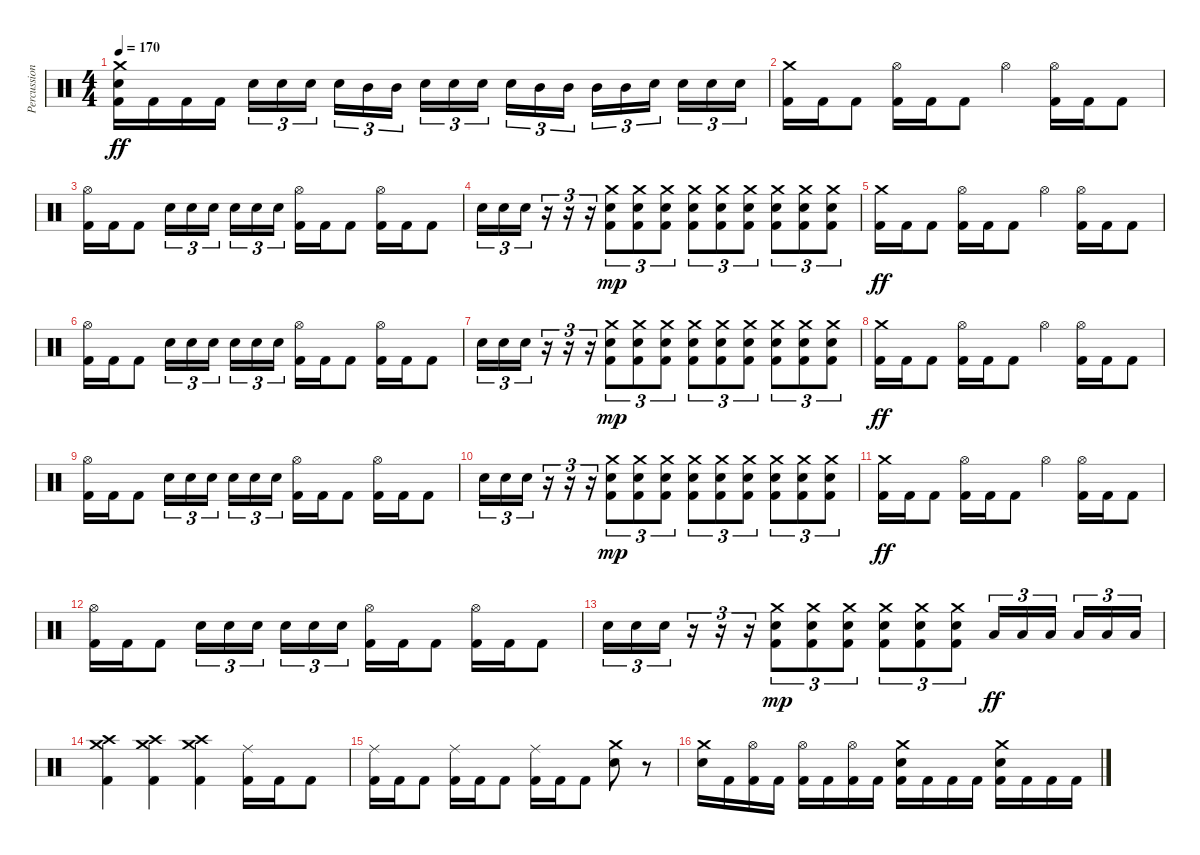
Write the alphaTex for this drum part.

\track ("Percussion" "Percussion") {instrument percussion}
\staff {score}
\articulation defaults
\ts (4 4)
\tempo 170
\clef neutral
\ks c
("Kick (hit) 2" "Electric Snare (hit)" "Crash medium (hit)").16{dy ff} "Kick (hit) 2".16 "Kick (hit) 2".16 "Kick (hit) 2".16 "Electric Snare (hit)".16{tu (3 2)} "Electric Snare (hit)".16{tu (3 2)} "Electric Snare (hit)".16{tu (3 2)} "Electric Snare (hit)".16{tu (3 2)} "Mid Tom (hit)".16{tu (3 2)} "Mid Tom (hit)".16{tu (3 2)} "Electric Snare (hit)".16{tu (3 2)} "Electric Snare (hit)".16{tu (3 2)} "Electric Snare (hit)".16{tu (3 2)} "Electric Snare (hit)".16{tu (3 2)} "Mid Tom (hit)".16{tu (3 2)} "Mid Tom (hit)".16{tu (3 2)} "Mid Tom (hit)".16{tu (3 2)} "Mid Tom (hit)".16{tu (3 2)} "Electric Snare (hit)".16{tu (3 2)} "Electric Snare (hit)".16{tu (3 2)} "Electric Snare (hit)".16{tu (3 2)} "Electric Snare (hit)".16{tu (3 2)} |
("Kick (hit) 2" "Crash medium (hit)").16 "Kick (hit) 2".16 "Kick (hit) 2".8 ("Kick (hit) 2" "Hi-Hat (open)").16 "Kick (hit) 2".16 "Kick (hit) 2".8 "Hi-Hat (open)".4 ("Kick (hit) 2" "Hi-Hat (open)").16 "Kick (hit) 2".16 "Kick (hit) 2".8 |
("Kick (hit) 2" "Hi-Hat (open)").16 "Kick (hit) 2".16 "Kick (hit) 2".8 "Electric Snare (hit)".16{tu (3 2)} "Electric Snare (hit)".16{tu (3 2)} "Electric Snare (hit)".16{tu (3 2)} "Electric Snare (hit)".16{tu (3 2)} "Electric Snare (hit)".16{tu (3 2)} "Electric Snare (hit)".16{tu (3 2)} ("Kick (hit) 2" "Hi-Hat (open)").16 "Kick (hit) 2".16 "Kick (hit) 2".8 ("Kick (hit) 2" "Hi-Hat (open)").16 "Kick (hit) 2".16 "Kick (hit) 2".8 |
"Electric Snare (hit)".16{tu (3 2)} "Electric Snare (hit)".16{tu (3 2)} "Electric Snare (hit)".16{tu (3 2)} r.16{tu (3 2)} r.16{tu (3 2)} r.16{tu (3 2)} ("Kick (hit) 2" "Electric Snare (hit)" "Crash medium (hit)").8{tu (3 2) dy mp} ("Kick (hit) 2" "Electric Snare (hit)" "Crash medium (hit)").8{tu (3 2)} ("Kick (hit) 2" "Electric Snare (hit)" "Crash medium (hit)").8{tu (3 2)} ("Kick (hit) 2" "Electric Snare (hit)" "Crash medium (hit)").8{tu (3 2)} ("Kick (hit) 2" "Electric Snare (hit)" "Crash medium (hit)").8{tu (3 2)} ("Kick (hit) 2" "Electric Snare (hit)" "Crash medium (hit)").8{tu (3 2)} ("Kick (hit) 2" "Electric Snare (hit)" "Crash medium (hit)").8{tu (3 2)} ("Kick (hit) 2" "Electric Snare (hit)" "Crash medium (hit)").8{tu (3 2)} ("Kick (hit) 2" "Electric Snare (hit)" "Crash medium (hit)").8{tu (3 2)} |
("Kick (hit) 2" "Crash medium (hit)").16{dy ff} "Kick (hit) 2".16 "Kick (hit) 2".8 ("Kick (hit) 2" "Hi-Hat (open)").16 "Kick (hit) 2".16 "Kick (hit) 2".8 "Hi-Hat (open)".4 ("Kick (hit) 2" "Hi-Hat (open)").16 "Kick (hit) 2".16 "Kick (hit) 2".8 |
("Kick (hit) 2" "Hi-Hat (open)").16 "Kick (hit) 2".16 "Kick (hit) 2".8 "Electric Snare (hit)".16{tu (3 2)} "Electric Snare (hit)".16{tu (3 2)} "Electric Snare (hit)".16{tu (3 2)} "Electric Snare (hit)".16{tu (3 2)} "Electric Snare (hit)".16{tu (3 2)} "Electric Snare (hit)".16{tu (3 2)} ("Kick (hit) 2" "Hi-Hat (open)").16 "Kick (hit) 2".16 "Kick (hit) 2".8 ("Kick (hit) 2" "Hi-Hat (open)").16 "Kick (hit) 2".16 "Kick (hit) 2".8 |
"Electric Snare (hit)".16{tu (3 2)} "Electric Snare (hit)".16{tu (3 2)} "Electric Snare (hit)".16{tu (3 2)} r.16{tu (3 2)} r.16{tu (3 2)} r.16{tu (3 2)} ("Kick (hit) 2" "Electric Snare (hit)" "Crash medium (hit)").8{tu (3 2) dy mp} ("Kick (hit) 2" "Electric Snare (hit)" "Crash medium (hit)").8{tu (3 2)} ("Kick (hit) 2" "Electric Snare (hit)" "Crash medium (hit)").8{tu (3 2)} ("Kick (hit) 2" "Electric Snare (hit)" "Crash medium (hit)").8{tu (3 2)} ("Kick (hit) 2" "Electric Snare (hit)" "Crash medium (hit)").8{tu (3 2)} ("Kick (hit) 2" "Electric Snare (hit)" "Crash medium (hit)").8{tu (3 2)} ("Kick (hit) 2" "Electric Snare (hit)" "Crash medium (hit)").8{tu (3 2)} ("Kick (hit) 2" "Electric Snare (hit)" "Crash medium (hit)").8{tu (3 2)} ("Kick (hit) 2" "Electric Snare (hit)" "Crash medium (hit)").8{tu (3 2)} |
("Kick (hit) 2" "Crash medium (hit)").16{dy ff} "Kick (hit) 2".16 "Kick (hit) 2".8 ("Kick (hit) 2" "Hi-Hat (open)").16 "Kick (hit) 2".16 "Kick (hit) 2".8 "Hi-Hat (open)".4 ("Kick (hit) 2" "Hi-Hat (open)").16 "Kick (hit) 2".16 "Kick (hit) 2".8 |
("Kick (hit) 2" "Hi-Hat (open)").16 "Kick (hit) 2".16 "Kick (hit) 2".8 "Electric Snare (hit)".16{tu (3 2)} "Electric Snare (hit)".16{tu (3 2)} "Electric Snare (hit)".16{tu (3 2)} "Electric Snare (hit)".16{tu (3 2)} "Electric Snare (hit)".16{tu (3 2)} "Electric Snare (hit)".16{tu (3 2)} ("Kick (hit) 2" "Hi-Hat (open)").16 "Kick (hit) 2".16 "Kick (hit) 2".8 ("Kick (hit) 2" "Hi-Hat (open)").16 "Kick (hit) 2".16 "Kick (hit) 2".8 |
"Electric Snare (hit)".16{tu (3 2)} "Electric Snare (hit)".16{tu (3 2)} "Electric Snare (hit)".16{tu (3 2)} r.16{tu (3 2)} r.16{tu (3 2)} r.16{tu (3 2)} ("Kick (hit) 2" "Electric Snare (hit)" "Crash medium (hit)").8{tu (3 2) dy mp} ("Kick (hit) 2" "Electric Snare (hit)" "Crash medium (hit)").8{tu (3 2)} ("Kick (hit) 2" "Electric Snare (hit)" "Crash medium (hit)").8{tu (3 2)} ("Kick (hit) 2" "Electric Snare (hit)" "Crash medium (hit)").8{tu (3 2)} ("Kick (hit) 2" "Electric Snare (hit)" "Crash medium (hit)").8{tu (3 2)} ("Kick (hit) 2" "Electric Snare (hit)" "Crash medium (hit)").8{tu (3 2)} ("Kick (hit) 2" "Electric Snare (hit)" "Crash medium (hit)").8{tu (3 2)} ("Kick (hit) 2" "Electric Snare (hit)" "Crash medium (hit)").8{tu (3 2)} ("Kick (hit) 2" "Electric Snare (hit)" "Crash medium (hit)").8{tu (3 2)} |
("Kick (hit) 2" "Crash medium (hit)").16{dy ff} "Kick (hit) 2".16 "Kick (hit) 2".8 ("Kick (hit) 2" "Hi-Hat (open)").16 "Kick (hit) 2".16 "Kick (hit) 2".8 "Hi-Hat (open)".4 ("Kick (hit) 2" "Hi-Hat (open)").16 "Kick (hit) 2".16 "Kick (hit) 2".8 |
("Kick (hit) 2" "Hi-Hat (open)").16 "Kick (hit) 2".16 "Kick (hit) 2".8 "Electric Snare (hit)".16{tu (3 2)} "Electric Snare (hit)".16{tu (3 2)} "Electric Snare (hit)".16{tu (3 2)} "Electric Snare (hit)".16{tu (3 2)} "Electric Snare (hit)".16{tu (3 2)} "Electric Snare (hit)".16{tu (3 2)} ("Kick (hit) 2" "Hi-Hat (open)").16 "Kick (hit) 2".16 "Kick (hit) 2".8 ("Kick (hit) 2" "Hi-Hat (open)").16 "Kick (hit) 2".16 "Kick (hit) 2".8 |
"Electric Snare (hit)".16{tu (3 2)} "Electric Snare (hit)".16{tu (3 2)} "Electric Snare (hit)".16{tu (3 2)} r.16{tu (3 2)} r.16{tu (3 2)} r.16{tu (3 2)} ("Kick (hit) 2" "Electric Snare (hit)" "Crash medium (hit)").8{tu (3 2) dy mp} ("Kick (hit) 2" "Electric Snare (hit)" "Crash medium (hit)").8{tu (3 2)} ("Kick (hit) 2" "Electric Snare (hit)" "Crash medium (hit)").8{tu (3 2)} ("Kick (hit) 2" "Electric Snare (hit)" "Crash medium (hit)").8{tu (3 2)} ("Kick (hit) 2" "Electric Snare (hit)" "Crash medium (hit)").8{tu (3 2)} ("Kick (hit) 2" "Electric Snare (hit)" "Crash medium (hit)").8{tu (3 2)} "Low Tom (hit)".16{tu (3 2) dy ff} "Low Tom (hit)".16{tu (3 2)} "Low Tom (hit)".16{tu (3 2)} "Low Tom (hit)".16{tu (3 2)} "Low Tom (hit)".16{tu (3 2)} "Low Tom (hit)".16{tu (3 2)} |
("Kick (hit) 2" "Crash medium (hit)" "Crash high (hit)").4 ("Kick (hit) 2" "Crash medium (hit)" "Crash high (hit)").4 ("Kick (hit) 2" "Crash medium (hit)" "Crash high (hit)").4 ("Kick (hit) 2" "Ride (middle)").16 "Kick (hit) 2".16 "Kick (hit) 2".8 |
("Kick (hit) 2" "Ride (middle)").16 "Kick (hit) 2".16 "Kick (hit) 2".8 ("Kick (hit) 2" "Ride (middle)").16 "Kick (hit) 2".16 "Kick (hit) 2".8 ("Kick (hit) 2" "Ride (middle)").16 "Kick (hit) 2".16 "Kick (hit) 2".8 ("Crash medium (hit)" "Electric Snare (hit)").8 r.8 |
("Crash medium (hit)" "Electric Snare (hit)").16 "Kick (hit) 2".16 ("Kick (hit) 2" "Hi-Hat (open)").16 "Kick (hit) 2".16 ("Kick (hit) 2" "Hi-Hat (open)").16 "Kick (hit) 2".16 ("Kick (hit) 2" "Hi-Hat (open)").16 "Kick (hit) 2".16 ("Kick (hit) 2" "Crash medium (hit)" "Electric Snare (hit)").16 "Kick (hit) 2".16 "Kick (hit) 2".16 "Kick (hit) 2".16 ("Kick (hit) 2" "Crash medium (hit)" "Electric Snare (hit)").16 "Kick (hit) 2".16 "Kick (hit) 2".16 "Kick (hit) 2".16
